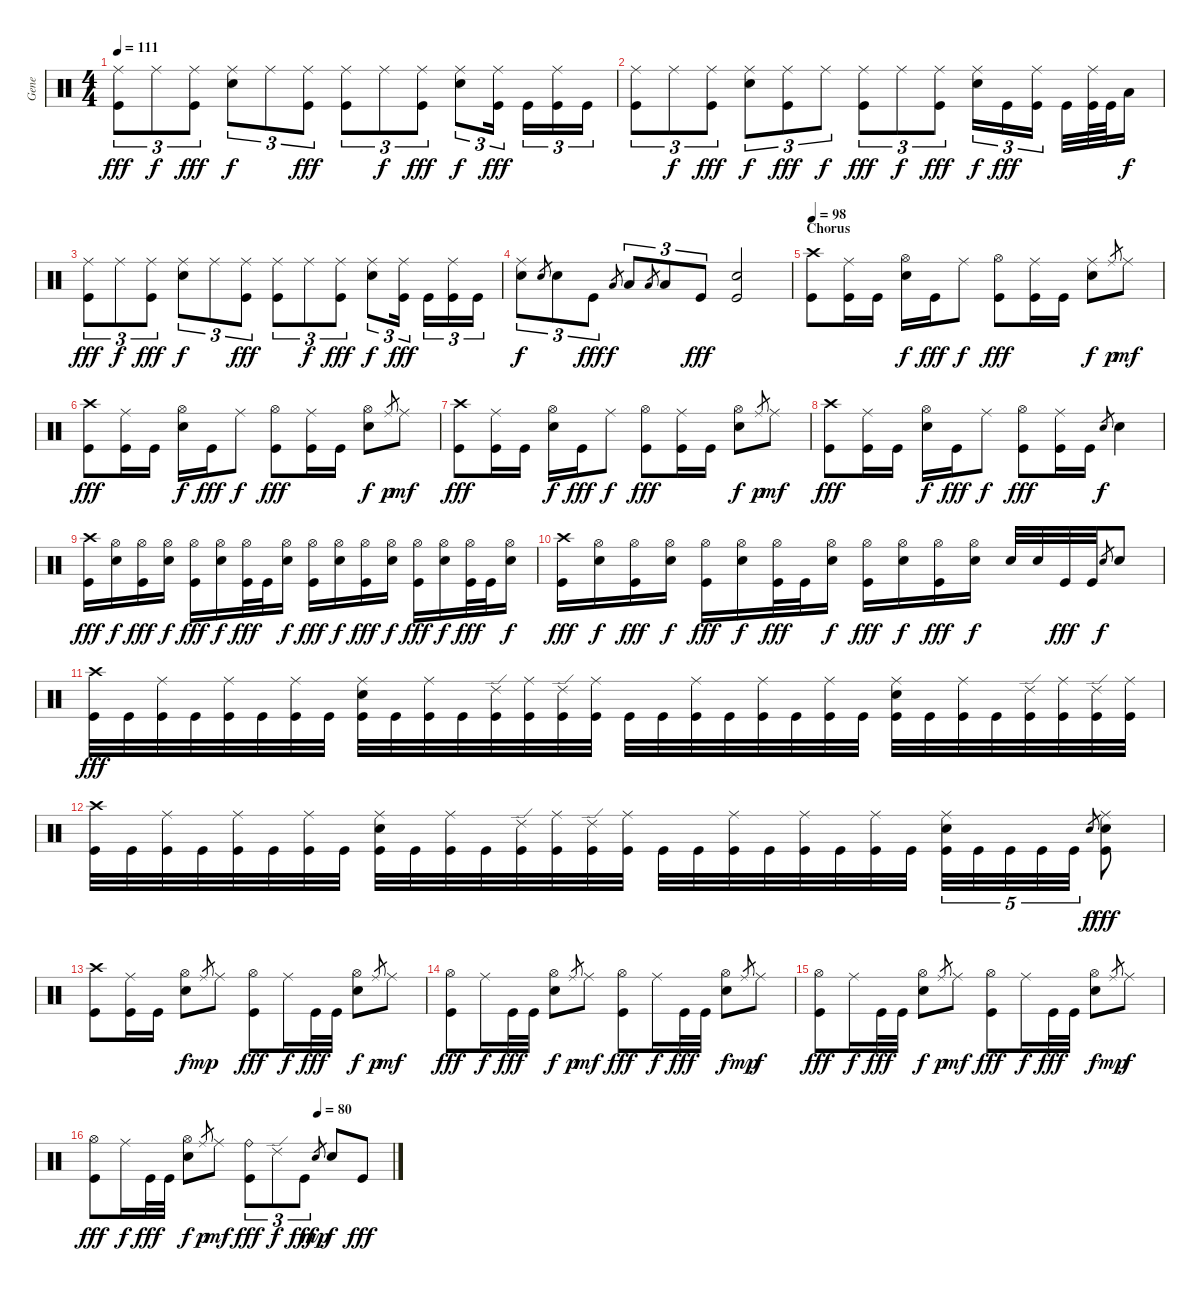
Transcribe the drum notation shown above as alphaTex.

\track ("Gene" "Gene") {instrument percussion}
\staff {score}
\articulation defaults
\ts (4 4)
\tempo 111
\clef neutral
\ks c
("Ride (middle)" "Kick (hit)").8{tu (3 2) dy fff} "Ride (middle)".8{tu (3 2) dy f} ("Ride (middle)" "Kick (hit)").8{tu (3 2) dy fff} ("Ride (middle)" "Snare (hit) 2").8{tu (3 2) dy f} "Ride (middle)".8{tu (3 2)} ("Ride (middle)" "Kick (hit)").8{tu (3 2) dy fff} ("Ride (middle)" "Kick (hit)").8{tu (3 2)} "Ride (middle)".8{tu (3 2) dy f} ("Ride (middle)" "Kick (hit)").8{tu (3 2) dy fff} ("Ride (middle)" "Snare (hit) 2").8{tu (3 2) dy f} ("Ride (middle)" "Kick (hit)").16{tu (3 2) dy fff} "Kick (hit)".16{tu (3 2)} ("Ride (middle)" "Kick (hit)").16{tu (3 2)} "Kick (hit)".16{tu (3 2)} |
("Ride (middle)" "Kick (hit)").8{tu (3 2)} "Ride (middle)".8{tu (3 2) dy f} ("Ride (middle)" "Kick (hit)").8{tu (3 2) dy fff} ("Ride (middle)" "Snare (hit) 2").8{tu (3 2) dy f} ("Ride (middle)" "Kick (hit)").8{tu (3 2) dy fff} "Ride (middle)".8{tu (3 2) dy f} ("Ride (middle)" "Kick (hit)").8{tu (3 2) dy fff} "Ride (middle)".8{tu (3 2) dy f} ("Ride (middle)" "Kick (hit)").8{tu (3 2) dy fff} ("Ride (middle)" "Snare (hit) 2").16{tu (3 2) dy f} "Kick (hit)".16{tu (3 2) dy fff} ("Ride (middle)" "Kick (hit)").16{tu (3 2)} "Kick (hit)".32 ("Ride (middle)" "Kick (hit)").64 "Kick (hit)".64 "Low Tom (hit)".16{dy f} |
("Ride (middle)" "Kick (hit)").8{tu (3 2) dy fff} "Ride (middle)".8{tu (3 2) dy f} ("Ride (middle)" "Kick (hit)").8{tu (3 2) dy fff} ("Ride (middle)" "Snare (hit) 2").8{tu (3 2) dy f} "Ride (middle)".8{tu (3 2)} ("Ride (middle)" "Kick (hit)").8{tu (3 2) dy fff} ("Ride (middle)" "Kick (hit)").8{tu (3 2)} "Ride (middle)".8{tu (3 2) dy f} ("Ride (middle)" "Kick (hit)").8{tu (3 2) dy fff} ("Ride (middle)" "Snare (hit) 2").8{tu (3 2) dy f} ("Ride (middle)" "Kick (hit)").16{tu (3 2) dy fff} "Kick (hit)".16{tu (3 2)} ("Ride (middle)" "Kick (hit)").16{tu (3 2)} "Kick (hit)".16{tu (3 2)} |
("Ride (middle)" "Snare (hit) 2").8{tu (3 2) dy f} "Snare (hit) 2".8{gr} "Snare (hit) 2".8{tu (3 2)} "Kick (hit)".8{tu (3 2) dy fff} "Low Tom (hit)".8{gr dy f} "Low Tom (hit)".8{tu (3 2)} "Low Tom (hit)".8{gr} "Low Tom (hit)".8{tu (3 2)} "Kick (hit)".8{tu (3 2) dy fff} ("Snare (hit) 2" "Kick (hit)").2 |
\section ("" "Chorus")
\tempo 98
("Crash high (hit)" "Kick (hit)").8 ("Ride (middle)" "Kick (hit)").16 "Kick (hit)".16 ("Hi-Hat (open)" "Snare (hit) 2").16{dy f} "Kick (hit)".16{dy fff} "Ride (middle)".8{dy f} ("Hi-Hat (open)" "Kick (hit)").8{dy fff} ("Ride (middle)" "Kick (hit)").16 "Kick (hit)".16 ("Ride (middle)" "Snare (hit) 2").8{dy f} "Ride (middle)".8{gr dy p} "Ride (middle)".8{dy mf} |
("Crash high (hit)" "Kick (hit)").8{dy fff} ("Ride (middle)" "Kick (hit)").16 "Kick (hit)".16 ("Hi-Hat (open)" "Snare (hit) 2").16{dy f} "Kick (hit)".16{dy fff} "Ride (middle)".8{dy f} ("Hi-Hat (open)" "Kick (hit)").8{dy fff} ("Ride (middle)" "Kick (hit)").16 "Kick (hit)".16 ("Hi-Hat (open)" "Snare (hit) 2").8{dy f} "Ride (middle)".8{gr dy p} "Ride (middle)".8{dy mf} |
("Crash high (hit)" "Kick (hit)").8{dy fff} ("Ride (middle)" "Kick (hit)").16 "Kick (hit)".16 ("Hi-Hat (open)" "Snare (hit) 2").16{dy f} "Kick (hit)".16{dy fff} "Ride (middle)".8{dy f} ("Hi-Hat (open)" "Kick (hit)").8{dy fff} ("Ride (middle)" "Kick (hit)").16 "Kick (hit)".16 ("Hi-Hat (open)" "Snare (hit) 2").8{dy f} "Ride (middle)".8{gr dy p} "Ride (middle)".8{dy mf} |
("Crash high (hit)" "Kick (hit)").8{dy fff} ("Ride (middle)" "Kick (hit)").16 "Kick (hit)".16 ("Hi-Hat (open)" "Snare (hit) 2").16{dy f} "Kick (hit)".16{dy fff} "Ride (middle)".8{dy f} ("Hi-Hat (open)" "Kick (hit)").8{dy fff} ("Ride (middle)" "Kick (hit)").16 "Kick (hit)".16 "Snare (hit) 2".8{gr dy f} "Snare (hit) 2".4 |
("Crash high (hit)" "Kick (hit)").16{dy fff} ("Hi-Hat (open)" "Snare (hit) 2").16{dy f} ("Hi-Hat (open)" "Kick (hit)").16{dy fff} ("Hi-Hat (open)" "Snare (hit) 2").16{dy f} ("Hi-Hat (open)" "Kick (hit)").16{dy fff} ("Hi-Hat (open)" "Snare (hit) 2").16{dy f} ("Hi-Hat (open)" "Kick (hit)").32{dy fff} "Kick (hit)".32 ("Hi-Hat (open)" "Snare (hit) 2").16{dy f} ("Hi-Hat (open)" "Kick (hit)").16{dy fff} ("Hi-Hat (open)" "Snare (hit) 2").16{dy f} ("Hi-Hat (open)" "Kick (hit)").16{dy fff} ("Hi-Hat (open)" "Snare (hit) 2").16{dy f} ("Hi-Hat (open)" "Kick (hit)").16{dy fff} ("Hi-Hat (open)" "Snare (hit) 2").16{dy f} ("Hi-Hat (open)" "Kick (hit)").32{dy fff} "Kick (hit)".32 ("Hi-Hat (open)" "Snare (hit) 2").16{dy f} |
("Crash high (hit)" "Kick (hit)").16{dy fff} ("Hi-Hat (open)" "Snare (hit) 2").16{dy f} ("Hi-Hat (open)" "Kick (hit)").16{dy fff} ("Hi-Hat (open)" "Snare (hit) 2").16{dy f} ("Hi-Hat (open)" "Kick (hit)").16{dy fff} ("Hi-Hat (open)" "Snare (hit) 2").16{dy f} ("Hi-Hat (open)" "Kick (hit)").32{dy fff} "Kick (hit)".32 ("Hi-Hat (open)" "Snare (hit) 2").16{dy f} ("Hi-Hat (open)" "Kick (hit)").16{dy fff} ("Hi-Hat (open)" "Snare (hit) 2").16{dy f} ("Hi-Hat (open)" "Kick (hit)").16{dy fff} ("Hi-Hat (open)" "Snare (hit) 2").16{dy f} "Snare (hit) 2".32 "Snare (hit) 2".32 "Kick (hit)".32{dy fff} "Kick (hit)".32 "Snare (hit) 2".8{gr dy f} "Snare (hit) 2".8 |
("Crash high (hit)" "Kick (hit)").32{dy fff} "Kick (hit)".32 ("Ride (middle)" "Kick (hit)").32 "Kick (hit)".32 ("Ride (middle)" "Kick (hit)").32 "Kick (hit)".32 ("Ride (middle)" "Kick (hit)").32 "Kick (hit)".32 ("Ride (middle)" "Snare (hit) 2" "Kick (hit)").32 "Kick (hit)".32 ("Ride (middle)" "Kick (hit)").32 "Kick (hit)".32 ("Ride (edge) 2" "Kick (hit)").32 ("Ride (middle)" "Kick (hit)").32 ("Ride (edge) 2" "Kick (hit)").32 ("Ride (middle)" "Kick (hit)").32 "Kick (hit)".32 "Kick (hit)".32 ("Ride (middle)" "Kick (hit)").32 "Kick (hit)".32 ("Ride (middle)" "Kick (hit)").32 "Kick (hit)".32 ("Ride (middle)" "Kick (hit)").32 "Kick (hit)".32 ("Ride (middle)" "Snare (hit) 2" "Kick (hit)").32 "Kick (hit)".32 ("Ride (middle)" "Kick (hit)").32 "Kick (hit)".32 ("Ride (edge) 2" "Kick (hit)").32 ("Ride (middle)" "Kick (hit)").32 ("Ride (edge) 2" "Kick (hit)").32 ("Ride (middle)" "Kick (hit)").32 |
("Crash high (hit)" "Kick (hit)").32 "Kick (hit)".32 ("Ride (middle)" "Kick (hit)").32 "Kick (hit)".32 ("Ride (middle)" "Kick (hit)").32 "Kick (hit)".32 ("Ride (middle)" "Kick (hit)").32 "Kick (hit)".32 ("Ride (middle)" "Snare (hit) 2" "Kick (hit)").32 "Kick (hit)".32 ("Ride (middle)" "Kick (hit)").32 "Kick (hit)".32 ("Ride (edge) 2" "Kick (hit)").32 ("Ride (middle)" "Kick (hit)").32 ("Ride (edge) 2" "Kick (hit)").32 ("Ride (middle)" "Kick (hit)").32 "Kick (hit)".32 "Kick (hit)".32 ("Ride (middle)" "Kick (hit)").32 "Kick (hit)".32 ("Ride (middle)" "Kick (hit)").32 "Kick (hit)".32 ("Ride (middle)" "Kick (hit)").32 "Kick (hit)".32 ("Ride (middle)" "Snare (hit) 2" "Kick (hit)").32{tu (5 4)} "Kick (hit)".32{tu (5 4)} "Kick (hit)".32{tu (5 4)} "Kick (hit)".32{tu (5 4)} "Kick (hit)".32{tu (5 4)} "Snare (hit) 2".8{gr dy f} ("Ride (middle)" "Snare (hit) 2" "Kick (hit)").8{dy fff} |
("Crash high (hit)" "Kick (hit)").8 ("Ride (middle)" "Kick (hit)").16 "Kick (hit)".16 ("Hi-Hat (open)" "Snare (hit) 2").8{dy f} "Ride (middle)".8{gr dy mp} "Ride (middle)".8 ("Hi-Hat (open)" "Kick (hit)").8{dy fff} "Ride (middle)".16{dy f} "Kick (hit)".32{dy fff} "Kick (hit)".32 ("Hi-Hat (open)" "Snare (hit) 2").8{dy f} "Ride (middle)".8{gr dy p} "Ride (middle)".8{dy mf} |
("Hi-Hat (open)" "Kick (hit)").8{dy fff} "Ride (middle)".16{dy f} "Kick (hit)".32{dy fff} "Kick (hit)".32 ("Hi-Hat (open)" "Snare (hit) 2").8{dy f} "Ride (middle)".8{gr dy p} "Ride (middle)".8{dy mf} ("Hi-Hat (open)" "Kick (hit)").8{dy fff} "Ride (middle)".16{dy f} "Kick (hit)".32{dy fff} "Kick (hit)".32 ("Hi-Hat (open)" "Snare (hit) 2").8{dy f} "Ride (middle)".8{gr dy mp} "Ride (middle)".8{dy f} |
("Hi-Hat (open)" "Kick (hit)").8{dy fff} "Ride (middle)".16{dy f} "Kick (hit)".32{dy fff} "Kick (hit)".32 ("Hi-Hat (open)" "Snare (hit) 2").8{dy f} "Ride (middle)".8{gr dy p} "Ride (middle)".8{dy mf} ("Hi-Hat (open)" "Kick (hit)").8{dy fff} "Ride (middle)".16{dy f} "Kick (hit)".32{dy fff} "Kick (hit)".32 ("Hi-Hat (open)" "Snare (hit) 2").8{dy f} "Ride (middle)".8{gr dy mp} "Ride (middle)".8{dy f} |
\tempo (80 0.75)
("Hi-Hat (open)" "Kick (hit)").8{dy fff} "Ride (middle)".16{dy f} "Kick (hit)".32{dy fff} "Kick (hit)".32 ("Hi-Hat (open)" "Snare (hit) 2").8{dy f} "Ride (middle)".8{gr dy p} "Ride (middle)".8{dy mf} ("Ride (bell)" "Kick (hit)").8{tu (3 2) dy fff} "Ride (edge) 2".8{tu (3 2) dy f balance 16} "Kick (hit)".8{tu (3 2) dy fff balance 8} "Snare (hit) 2".8{gr dy mp} "Snare (hit) 2".8{dy f} "Kick (hit)".8{dy fff}
